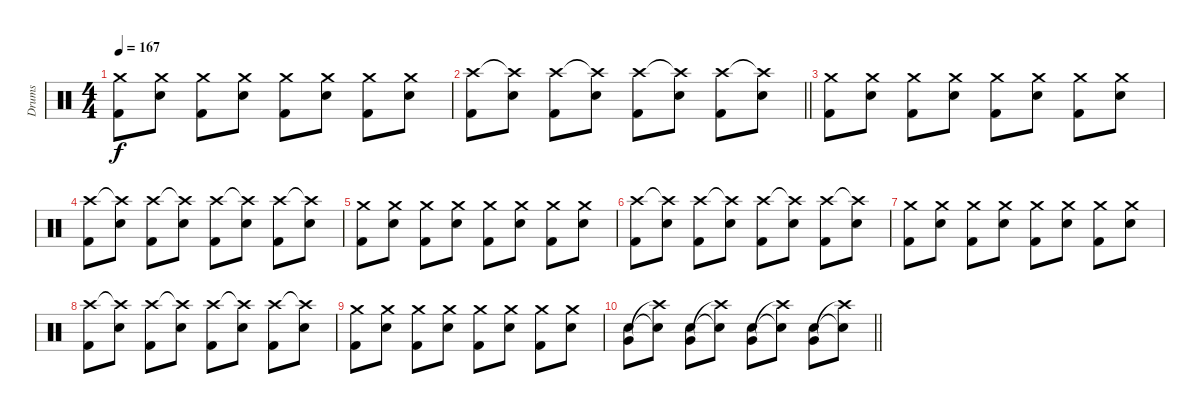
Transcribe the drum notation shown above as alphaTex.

\track ("Drums" "Drums") {instrument percussion}
\staff {score}
\articulation defaults
\ts (4 4)
\tempo 167
\clef neutral
\ks c
("Crash medium (hit)" "Kick (hit) 2").8{dy f} ("Crash medium (hit)" "Snare (hit) 2").8 ("Crash medium (hit)" "Kick (hit) 2").8 ("Crash medium (hit)" "Snare (hit) 2").8 ("Crash medium (hit)" "Kick (hit) 2").8 ("Crash medium (hit)" "Snare (hit) 2").8 ("Crash medium (hit)" "Kick (hit) 2").8 ("Crash medium (hit)" "Snare (hit) 2").8 |
\barLineRight lightlight
("Crash high (hit)" "Kick (hit) 2").8 ("Crash high (hit)"{t} "Snare (hit) 2").8 ("Crash high (hit)" "Kick (hit) 2").8 ("Crash high (hit)"{t} "Snare (hit) 2").8 ("Crash high (hit)" "Kick (hit) 2").8 ("Crash high (hit)"{t} "Snare (hit) 2").8 ("Crash high (hit)" "Kick (hit) 2").8 ("Crash high (hit)"{t} "Snare (hit) 2").8 |
("Crash medium (hit)" "Kick (hit) 2").8 ("Crash medium (hit)" "Snare (hit) 2").8 ("Crash medium (hit)" "Kick (hit) 2").8 ("Crash medium (hit)" "Snare (hit) 2").8 ("Crash medium (hit)" "Kick (hit) 2").8 ("Crash medium (hit)" "Snare (hit) 2").8 ("Crash medium (hit)" "Kick (hit) 2").8 ("Crash medium (hit)" "Snare (hit) 2").8 |
("Crash high (hit)" "Kick (hit) 2").8 ("Crash high (hit)"{t} "Snare (hit) 2").8 ("Crash high (hit)" "Kick (hit) 2").8 ("Crash high (hit)"{t} "Snare (hit) 2").8 ("Crash high (hit)" "Kick (hit) 2").8 ("Crash high (hit)"{t} "Snare (hit) 2").8 ("Crash high (hit)" "Kick (hit) 2").8 ("Crash high (hit)"{t} "Snare (hit) 2").8 |
("Crash medium (hit)" "Kick (hit) 2").8 ("Crash medium (hit)" "Snare (hit) 2").8 ("Crash medium (hit)" "Kick (hit) 2").8 ("Crash medium (hit)" "Snare (hit) 2").8 ("Crash medium (hit)" "Kick (hit) 2").8 ("Crash medium (hit)" "Snare (hit) 2").8 ("Crash medium (hit)" "Kick (hit) 2").8 ("Crash medium (hit)" "Snare (hit) 2").8 |
("Crash high (hit)" "Kick (hit) 2").8 ("Crash high (hit)"{t} "Snare (hit) 2").8 ("Crash high (hit)" "Kick (hit) 2").8 ("Crash high (hit)"{t} "Snare (hit) 2").8 ("Crash high (hit)" "Kick (hit) 2").8 ("Crash high (hit)"{t} "Snare (hit) 2").8 ("Crash high (hit)" "Kick (hit) 2").8 ("Crash high (hit)"{t} "Snare (hit) 2").8 |
("Crash medium (hit)" "Kick (hit) 2").8 ("Crash medium (hit)" "Snare (hit) 2").8 ("Crash medium (hit)" "Kick (hit) 2").8 ("Crash medium (hit)" "Snare (hit) 2").8 ("Crash medium (hit)" "Kick (hit) 2").8 ("Crash medium (hit)" "Snare (hit) 2").8 ("Crash medium (hit)" "Kick (hit) 2").8 ("Crash medium (hit)" "Snare (hit) 2").8 |
("Crash high (hit)" "Kick (hit) 2").8 ("Crash high (hit)"{t} "Snare (hit) 2").8 ("Crash high (hit)" "Kick (hit) 2").8 ("Crash high (hit)"{t} "Snare (hit) 2").8 ("Crash high (hit)" "Kick (hit) 2").8 ("Crash high (hit)"{t} "Snare (hit) 2").8 ("Crash high (hit)" "Kick (hit) 2").8 ("Crash high (hit)"{t} "Snare (hit) 2").8 |
("Crash medium (hit)" "Kick (hit) 2").8 ("Crash medium (hit)" "Snare (hit) 2").8 ("Crash medium (hit)" "Kick (hit) 2").8 ("Crash medium (hit)" "Snare (hit) 2").8 ("Crash medium (hit)" "Kick (hit) 2").8 ("Crash medium (hit)" "Snare (hit) 2").8 ("Crash medium (hit)" "Kick (hit) 2").8 ("Crash medium (hit)" "Snare (hit) 2").8 |
\barLineRight lightlight
("Very Low Tom (hit)" "Snare (hit) 2").8 ("Crash high (hit)"{t} "Snare (hit) 2"{t}).8 ("Very Low Tom (hit)" "Snare (hit) 2").8 ("Crash high (hit)"{t} "Snare (hit) 2"{t}).8 ("Very Low Tom (hit)" "Snare (hit) 2").8 ("Crash high (hit)"{t} "Snare (hit) 2"{t}).8 ("Very Low Tom (hit)" "Snare (hit) 2").8 ("Crash high (hit)"{t} "Snare (hit) 2"{t}).8
